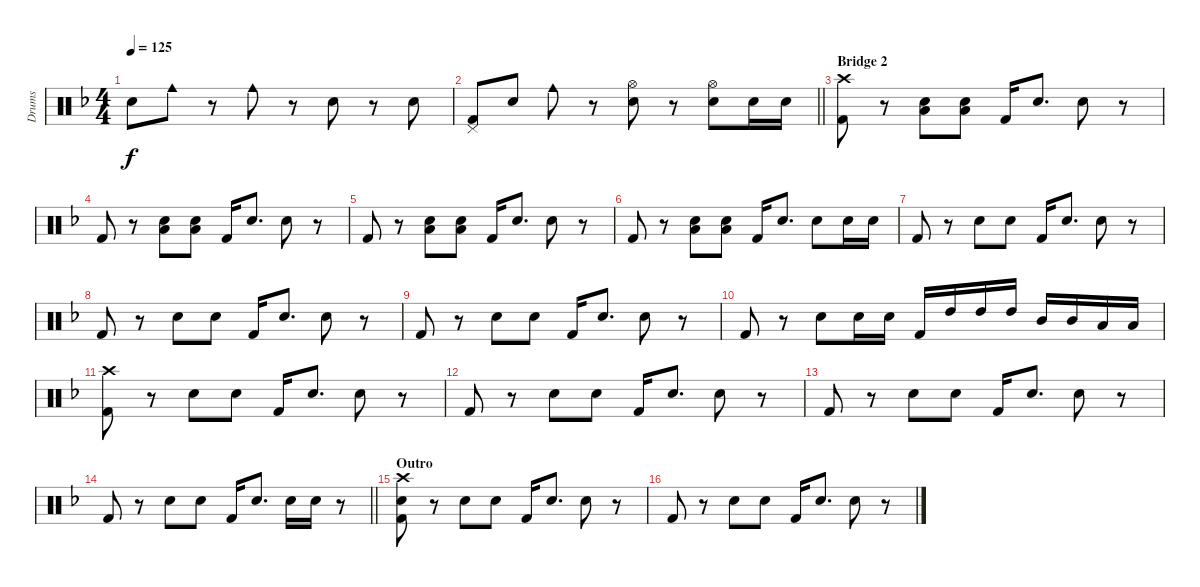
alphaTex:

\track ("Drums" "Drums") {instrument percussion}
\staff {score}
\articulation defaults
\ts (4 4)
\tempo 125
\clef neutral
\ks f "Electric Snare (hit)".8{dy f} "Cowbell medium (hit)".8
r.8 "Cowbell medium (hit)".8 r.8 "Electric Snare (hit)".8 r.8 "Electric Snare (hit)".8 |
\barLineRight lightlight
("Pedal Hi-Hat (hit)" "Kick (hit) 2").8 "Electric Snare (hit)".8 "Cowbell medium (hit)".8 r.8 ("Hi-Hat (open)" "Electric Snare (hit)").8 r.8 ("Hi-Hat (open)" "Electric Snare (hit)").8 "Electric Snare (hit)".16 "Electric Snare (hit)".16 |
\section ("" "Bridge 2")
("Crash high (hit)" "Kick (hit) 2").8 r.8 ("Electric Snare (hit)" "Low Floor Tom (hit)").8 ("Electric Snare (hit)" "Low Floor Tom (hit)").8 "Kick (hit) 2".16 "Electric Snare (hit)".8{d} "Electric Snare (hit)".8 r.8 |
"Kick (hit) 2".8 r.8 ("Electric Snare (hit)" "Low Floor Tom (hit)").8 ("Electric Snare (hit)" "Low Floor Tom (hit)").8 "Kick (hit) 2".16 "Electric Snare (hit)".8{d} "Electric Snare (hit)".8 r.8 |
"Kick (hit) 2".8 r.8 ("Electric Snare (hit)" "Low Floor Tom (hit)").8 ("Electric Snare (hit)" "Low Floor Tom (hit)").8 "Kick (hit) 2".16 "Electric Snare (hit)".8{d} "Electric Snare (hit)".8 r.8 |
"Kick (hit) 2".8 r.8 ("Electric Snare (hit)" "Low Floor Tom (hit)").8 ("Electric Snare (hit)" "Low Floor Tom (hit)").8 "Kick (hit) 2".16 "Electric Snare (hit)".8{d} "Electric Snare (hit)".8 "Electric Snare (hit)".16 "Electric Snare (hit)".16 |
"Kick (hit) 2".8 r.8 "Electric Snare (hit)".8 "Electric Snare (hit)".8 "Kick (hit) 2".16 "Electric Snare (hit)".8{d} "Electric Snare (hit)".8 r.8 |
"Kick (hit) 2".8 r.8 "Electric Snare (hit)".8 "Electric Snare (hit)".8 "Kick (hit) 2".16 "Electric Snare (hit)".8{d} "Electric Snare (hit)".8 r.8 |
"Kick (hit) 2".8 r.8 "Electric Snare (hit)".8 "Electric Snare (hit)".8 "Kick (hit) 2".16 "Electric Snare (hit)".8{d} "Electric Snare (hit)".8 r.8 |
"Kick (hit) 2".8 r.8 "Electric Snare (hit)".8 "Electric Snare (hit)".16 "Electric Snare (hit)".16 "Kick (hit) 2".16 "High Tom (hit)".16 "High Tom (hit)".16 "High Tom (hit)".16 "Mid Tom (hit)".16 "Mid Tom (hit)".16 "Low Tom (hit)".16 "Low Tom (hit)".16 |
("Crash high (hit)" "Kick (hit) 2").8 r.8 "Electric Snare (hit)".8 "Electric Snare (hit)".8 "Kick (hit) 2".16 "Electric Snare (hit)".8{d} "Electric Snare (hit)".8 r.8 |
"Kick (hit) 2".8 r.8 "Electric Snare (hit)".8 "Electric Snare (hit)".8 "Kick (hit) 2".16 "Electric Snare (hit)".8{d} "Electric Snare (hit)".8 r.8 |
"Kick (hit) 2".8 r.8 "Electric Snare (hit)".8 "Electric Snare (hit)".8 "Kick (hit) 2".16 "Electric Snare (hit)".8{d} "Electric Snare (hit)".8 r.8 |
\barLineRight lightlight "Kick (hit) 2".8
r.8 "Electric Snare (hit)".8 "Electric Snare (hit)".8 "Kick (hit) 2".16 "Electric Snare (hit)".8{d} "Electric Snare (hit)".16 "Electric Snare (hit)".16 r.8 |
\section ("" "Outro")
("Crash high (hit)" "Electric Snare (hit)" "Kick (hit) 2").8 r.8 "Electric Snare (hit)".8 "Electric Snare (hit)".8 "Kick (hit) 2".16 "Electric Snare (hit)".8{d} "Electric Snare (hit)".8 r.8 |
"Kick (hit) 2".8 r.8 "Electric Snare (hit)".8 "Electric Snare (hit)".8 "Kick (hit) 2".16 "Electric Snare (hit)".8{d} "Electric Snare (hit)".8 r.8
